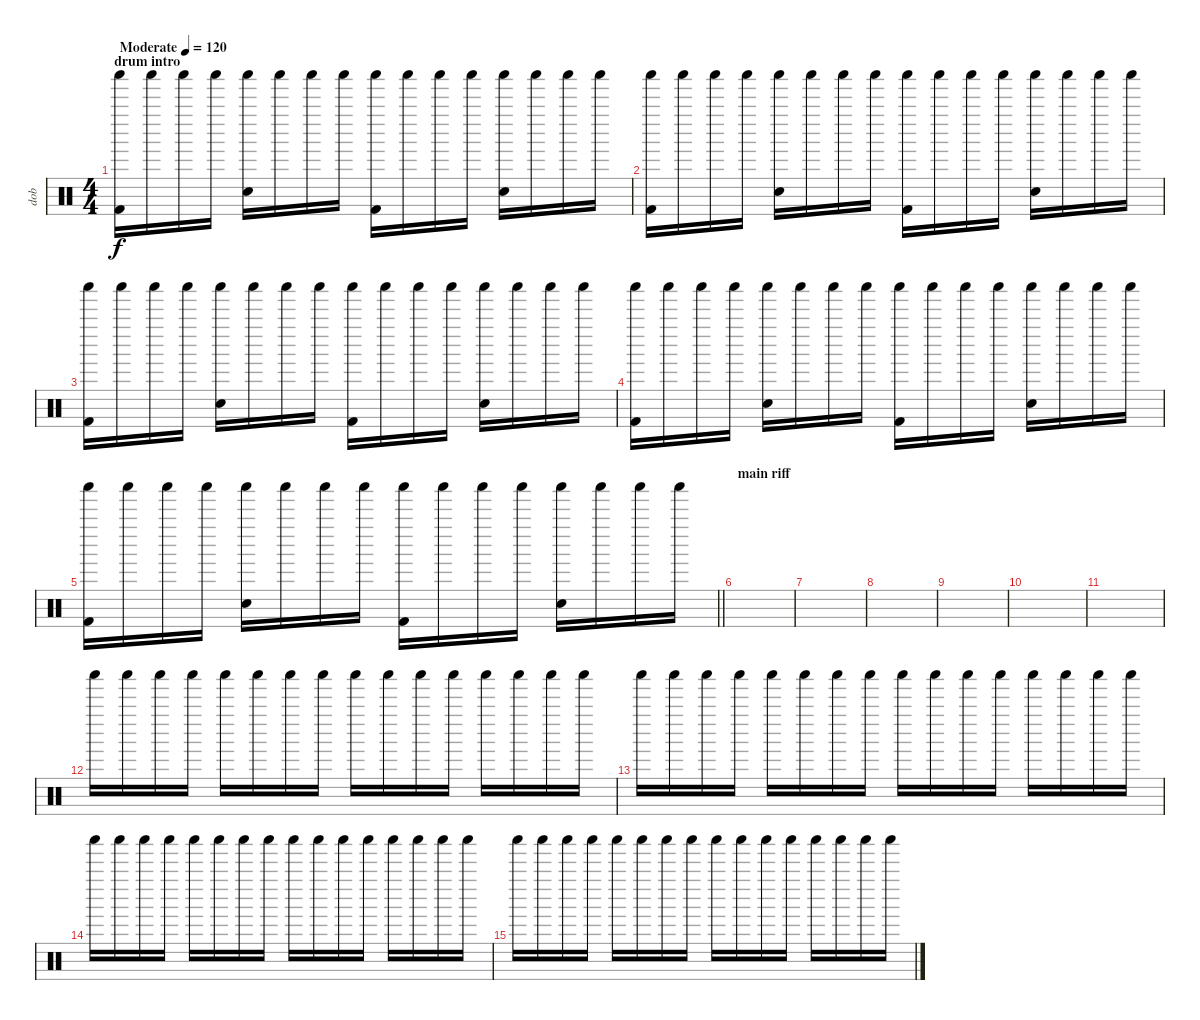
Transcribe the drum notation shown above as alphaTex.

\track ("dob" "dob") {instrument percussion}
\staff {score}
\articulation defaults
\ts (4 4)
\section ("" "drum intro")
\tempo (120 "Moderate")
\clef neutral
\ks c
("Kick (hit) 2" "Shaker (hit)").16{dy f} "Shaker (hit)".16 "Shaker (hit)".16 "Shaker (hit)".16 ("Electric Snare (hit)" "Shaker (hit)").16 "Shaker (hit)".16 "Shaker (hit)".16 "Shaker (hit)".16 ("Kick (hit) 2" "Shaker (hit)").16 "Shaker (hit)".16 "Shaker (hit)".16 "Shaker (hit)".16 ("Electric Snare (hit)" "Shaker (hit)").16 "Shaker (hit)".16 "Shaker (hit)".16 "Shaker (hit)".16 |
("Kick (hit) 2" "Shaker (hit)").16 "Shaker (hit)".16 "Shaker (hit)".16 "Shaker (hit)".16 ("Electric Snare (hit)" "Shaker (hit)").16 "Shaker (hit)".16 "Shaker (hit)".16 "Shaker (hit)".16 ("Kick (hit) 2" "Shaker (hit)").16 "Shaker (hit)".16 "Shaker (hit)".16 "Shaker (hit)".16 ("Electric Snare (hit)" "Shaker (hit)").16 "Shaker (hit)".16 "Shaker (hit)".16 "Shaker (hit)".16 |
("Kick (hit) 2" "Shaker (hit)").16 "Shaker (hit)".16 "Shaker (hit)".16 "Shaker (hit)".16 ("Electric Snare (hit)" "Shaker (hit)").16 "Shaker (hit)".16 "Shaker (hit)".16 "Shaker (hit)".16 ("Kick (hit) 2" "Shaker (hit)").16 "Shaker (hit)".16 "Shaker (hit)".16 "Shaker (hit)".16 ("Electric Snare (hit)" "Shaker (hit)").16 "Shaker (hit)".16 "Shaker (hit)".16 "Shaker (hit)".16 |
("Kick (hit) 2" "Shaker (hit)").16 "Shaker (hit)".16 "Shaker (hit)".16 "Shaker (hit)".16 ("Electric Snare (hit)" "Shaker (hit)").16 "Shaker (hit)".16 "Shaker (hit)".16 "Shaker (hit)".16 ("Kick (hit) 2" "Shaker (hit)").16 "Shaker (hit)".16 "Shaker (hit)".16 "Shaker (hit)".16 ("Electric Snare (hit)" "Shaker (hit)").16 "Shaker (hit)".16 "Shaker (hit)".16 "Shaker (hit)".16 |
\barLineRight lightlight
("Kick (hit) 2" "Shaker (hit)").16 "Shaker (hit)".16 "Shaker (hit)".16 "Shaker (hit)".16 ("Electric Snare (hit)" "Shaker (hit)").16 "Shaker (hit)".16 "Shaker (hit)".16 "Shaker (hit)".16 ("Kick (hit) 2" "Shaker (hit)").16 "Shaker (hit)".16 "Shaker (hit)".16 "Shaker (hit)".16 ("Electric Snare (hit)" "Shaker (hit)").16 "Shaker (hit)".16 "Shaker (hit)".16 "Shaker (hit)".16 |
\section ("" "main riff")
|
|
|
|
|
|
"Shaker (hit)".16 "Shaker (hit)".16 "Shaker (hit)".16 "Shaker (hit)".16 "Shaker (hit)".16 "Shaker (hit)".16 "Shaker (hit)".16 "Shaker (hit)".16 "Shaker (hit)".16 "Shaker (hit)".16 "Shaker (hit)".16 "Shaker (hit)".16 "Shaker (hit)".16 "Shaker (hit)".16 "Shaker (hit)".16 "Shaker (hit)".16 |
"Shaker (hit)".16 "Shaker (hit)".16 "Shaker (hit)".16 "Shaker (hit)".16 "Shaker (hit)".16 "Shaker (hit)".16 "Shaker (hit)".16 "Shaker (hit)".16 "Shaker (hit)".16 "Shaker (hit)".16 "Shaker (hit)".16 "Shaker (hit)".16 "Shaker (hit)".16 "Shaker (hit)".16 "Shaker (hit)".16 "Shaker (hit)".16 |
"Shaker (hit)".16 "Shaker (hit)".16 "Shaker (hit)".16 "Shaker (hit)".16 "Shaker (hit)".16 "Shaker (hit)".16 "Shaker (hit)".16 "Shaker (hit)".16 "Shaker (hit)".16 "Shaker (hit)".16 "Shaker (hit)".16 "Shaker (hit)".16 "Shaker (hit)".16 "Shaker (hit)".16 "Shaker (hit)".16 "Shaker (hit)".16 |
"Shaker (hit)".16 "Shaker (hit)".16 "Shaker (hit)".16 "Shaker (hit)".16 "Shaker (hit)".16 "Shaker (hit)".16 "Shaker (hit)".16 "Shaker (hit)".16 "Shaker (hit)".16 "Shaker (hit)".16 "Shaker (hit)".16 "Shaker (hit)".16 "Shaker (hit)".16 "Shaker (hit)".16 "Shaker (hit)".16 "Shaker (hit)".16
